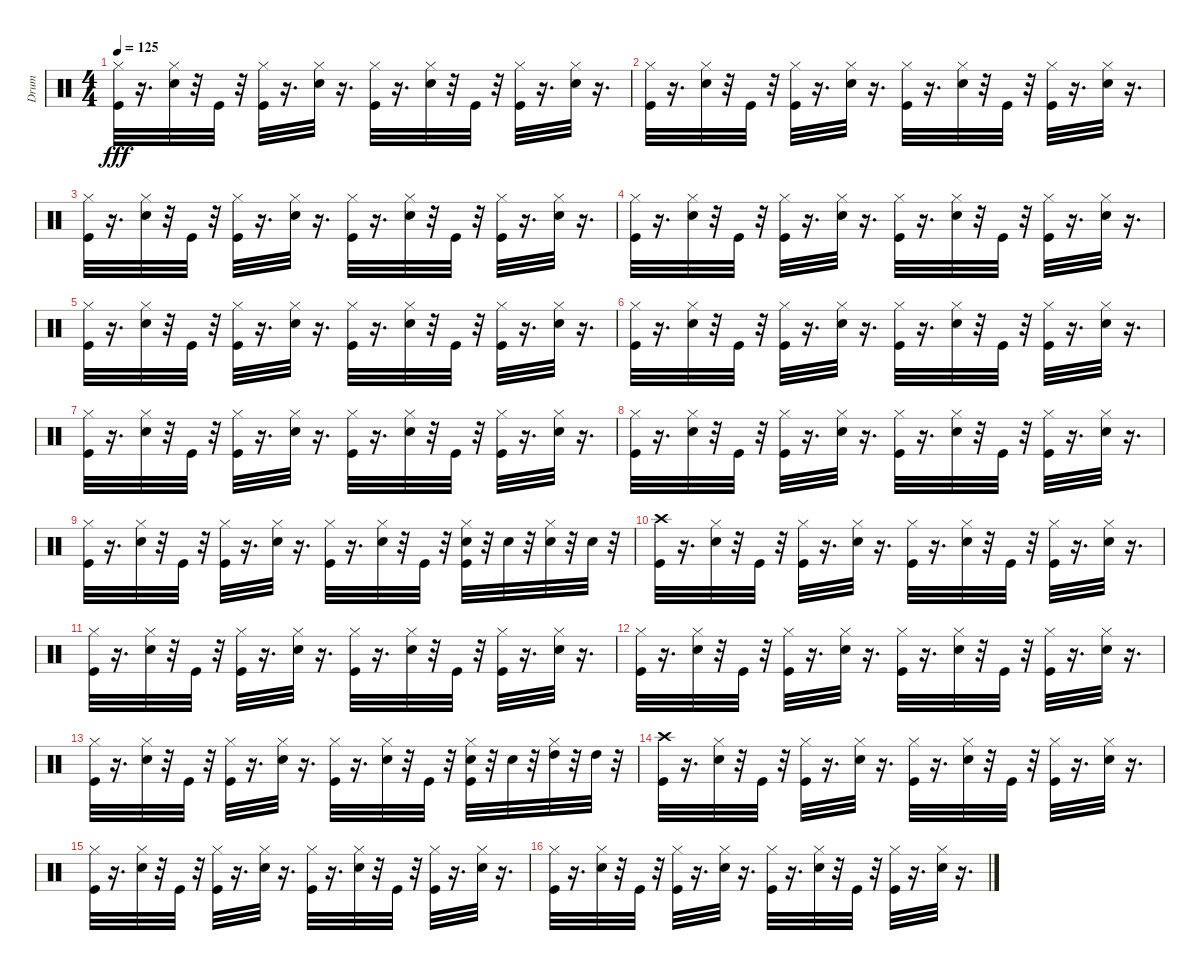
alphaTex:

\track ("Drum" "Drum") {instrument percussion}
\staff {score}
\articulation defaults
\ts (4 4)
\tempo 125
\clef neutral
\ks c
("Hi-Hat (closed)" "Kick (hit)").32{dy fff} r.16{d} ("Hi-Hat (closed)" "Snare (hit) 2").32 r.32 "Kick (hit)".32 r.32 ("Hi-Hat (closed)" "Kick (hit)").32 r.16{d} ("Snare (hit) 2" "Hi-Hat (closed)").32 r.16{d} ("Kick (hit)" "Hi-Hat (closed)").32 r.16{d} ("Snare (hit) 2" "Hi-Hat (closed)").32 r.32 "Kick (hit)".32 r.32 ("Kick (hit)" "Hi-Hat (closed)").32 r.16{d} ("Snare (hit) 2" "Hi-Hat (closed)").32 r.16{d} |
("Hi-Hat (closed)" "Kick (hit)").32 r.16{d} ("Hi-Hat (closed)" "Snare (hit) 2").32 r.32 "Kick (hit)".32 r.32 ("Hi-Hat (closed)" "Kick (hit)").32 r.16{d} ("Snare (hit) 2" "Hi-Hat (closed)").32 r.16{d} ("Kick (hit)" "Hi-Hat (closed)").32 r.16{d} ("Snare (hit) 2" "Hi-Hat (closed)").32 r.32 "Kick (hit)".32 r.32 ("Kick (hit)" "Hi-Hat (closed)").32 r.16{d} ("Snare (hit) 2" "Hi-Hat (closed)").32 r.16{d} |
("Hi-Hat (closed)" "Kick (hit)").32 r.16{d} ("Hi-Hat (closed)" "Snare (hit) 2").32 r.32 "Kick (hit)".32 r.32 ("Hi-Hat (closed)" "Kick (hit)").32 r.16{d} ("Snare (hit) 2" "Hi-Hat (closed)").32 r.16{d} ("Kick (hit)" "Hi-Hat (closed)").32 r.16{d} ("Snare (hit) 2" "Hi-Hat (closed)").32 r.32 "Kick (hit)".32 r.32 ("Kick (hit)" "Hi-Hat (closed)").32 r.16{d} ("Snare (hit) 2" "Hi-Hat (closed)").32 r.16{d} |
("Hi-Hat (closed)" "Kick (hit)").32 r.16{d} ("Hi-Hat (closed)" "Snare (hit) 2").32 r.32 "Kick (hit)".32 r.32 ("Hi-Hat (closed)" "Kick (hit)").32 r.16{d} ("Snare (hit) 2" "Hi-Hat (closed)").32 r.16{d} ("Kick (hit)" "Hi-Hat (closed)").32 r.16{d} ("Snare (hit) 2" "Hi-Hat (closed)").32 r.32 "Kick (hit)".32 r.32 ("Kick (hit)" "Hi-Hat (closed)").32 r.16{d} ("Snare (hit) 2" "Hi-Hat (closed)").32 r.16{d} |
("Hi-Hat (closed)" "Kick (hit)").32 r.16{d} ("Hi-Hat (closed)" "Snare (hit) 2").32 r.32 "Kick (hit)".32 r.32 ("Hi-Hat (closed)" "Kick (hit)").32 r.16{d} ("Snare (hit) 2" "Hi-Hat (closed)").32 r.16{d} ("Kick (hit)" "Hi-Hat (closed)").32 r.16{d} ("Snare (hit) 2" "Hi-Hat (closed)").32 r.32 "Kick (hit)".32 r.32 ("Kick (hit)" "Hi-Hat (closed)").32 r.16{d} ("Snare (hit) 2" "Hi-Hat (closed)").32 r.16{d} |
("Hi-Hat (closed)" "Kick (hit)").32 r.16{d} ("Hi-Hat (closed)" "Snare (hit) 2").32 r.32 "Kick (hit)".32 r.32 ("Hi-Hat (closed)" "Kick (hit)").32 r.16{d} ("Snare (hit) 2" "Hi-Hat (closed)").32 r.16{d} ("Kick (hit)" "Hi-Hat (closed)").32 r.16{d} ("Snare (hit) 2" "Hi-Hat (closed)").32 r.32 "Kick (hit)".32 r.32 ("Kick (hit)" "Hi-Hat (closed)").32 r.16{d} ("Snare (hit) 2" "Hi-Hat (closed)").32 r.16{d} |
("Hi-Hat (closed)" "Kick (hit)").32 r.16{d} ("Hi-Hat (closed)" "Snare (hit) 2").32 r.32 "Kick (hit)".32 r.32 ("Hi-Hat (closed)" "Kick (hit)").32 r.16{d} ("Snare (hit) 2" "Hi-Hat (closed)").32 r.16{d} ("Kick (hit)" "Hi-Hat (closed)").32 r.16{d} ("Snare (hit) 2" "Hi-Hat (closed)").32 r.32 "Kick (hit)".32 r.32 ("Kick (hit)" "Hi-Hat (closed)").32 r.16{d} ("Snare (hit) 2" "Hi-Hat (closed)").32 r.16{d} |
("Hi-Hat (closed)" "Kick (hit)").32 r.16{d} ("Hi-Hat (closed)" "Snare (hit) 2").32 r.32 "Kick (hit)".32 r.32 ("Hi-Hat (closed)" "Kick (hit)").32 r.16{d} ("Snare (hit) 2" "Hi-Hat (closed)").32 r.16{d} ("Kick (hit)" "Hi-Hat (closed)").32 r.16{d} ("Snare (hit) 2" "Hi-Hat (closed)").32 r.32 "Kick (hit)".32 r.32 ("Kick (hit)" "Hi-Hat (closed)").32 r.16{d} ("Snare (hit) 2" "Hi-Hat (closed)").32 r.16{d} |
("Hi-Hat (closed)" "Kick (hit)").32 r.16{d} ("Hi-Hat (closed)" "Snare (hit) 2").32 r.32 "Kick (hit)".32 r.32 ("Hi-Hat (closed)" "Kick (hit)").32 r.16{d} ("Snare (hit) 2" "Hi-Hat (closed)").32 r.16{d} ("Kick (hit)" "Hi-Hat (closed)").32 r.16{d} ("Snare (hit) 2" "Hi-Hat (closed)").32 r.32 "Kick (hit)".32 r.32 ("Snare (hit) 2" "Kick (hit)" "Hi-Hat (closed)").32 r.32 "Snare (hit) 2".32 r.32 ("Snare (hit) 2" "Hi-Hat (closed)").32 r.32 "Snare (hit) 2".32 r.32 |
("Crash high (hit)" "Kick (hit)").32 r.16{d} ("Hi-Hat (closed)" "Snare (hit) 2").32 r.32 "Kick (hit)".32 r.32 ("Hi-Hat (closed)" "Kick (hit)").32 r.16{d} ("Snare (hit) 2" "Hi-Hat (closed)").32 r.16{d} ("Kick (hit)" "Hi-Hat (closed)").32 r.16{d} ("Snare (hit) 2" "Hi-Hat (closed)").32 r.32 "Kick (hit)".32 r.32 ("Kick (hit)" "Hi-Hat (closed)").32 r.16{d} ("Snare (hit) 2" "Hi-Hat (closed)").32 r.16{d} |
("Hi-Hat (closed)" "Kick (hit)").32 r.16{d} ("Hi-Hat (closed)" "Snare (hit) 2").32 r.32 "Kick (hit)".32 r.32 ("Hi-Hat (closed)" "Kick (hit)").32 r.16{d} ("Snare (hit) 2" "Hi-Hat (closed)").32 r.16{d} ("Kick (hit)" "Hi-Hat (closed)").32 r.16{d} ("Snare (hit) 2" "Hi-Hat (closed)").32 r.32 "Kick (hit)".32 r.32 ("Kick (hit)" "Hi-Hat (closed)").32 r.16{d} ("Snare (hit) 2" "Hi-Hat (closed)").32 r.16{d} |
("Hi-Hat (closed)" "Kick (hit)").32 r.16{d} ("Hi-Hat (closed)" "Snare (hit) 2").32 r.32 "Kick (hit)".32 r.32 ("Hi-Hat (closed)" "Kick (hit)").32 r.16{d} ("Snare (hit) 2" "Hi-Hat (closed)").32 r.16{d} ("Kick (hit)" "Hi-Hat (closed)").32 r.16{d} ("Snare (hit) 2" "Hi-Hat (closed)").32 r.32 "Kick (hit)".32 r.32 ("Kick (hit)" "Hi-Hat (closed)").32 r.16{d} ("Snare (hit) 2" "Hi-Hat (closed)").32 r.16{d} |
("Hi-Hat (closed)" "Kick (hit)").32 r.16{d} ("Hi-Hat (closed)" "Snare (hit) 2").32 r.32 "Kick (hit)".32 r.32 ("Hi-Hat (closed)" "Kick (hit)").32 r.16{d} ("Snare (hit) 2" "Hi-Hat (closed)").32 r.16{d} ("Kick (hit)" "Hi-Hat (closed)").32 r.16{d} ("Snare (hit) 2" "Hi-Hat (closed)").32 r.32 "Kick (hit)".32 r.32 ("Snare (hit) 2" "Kick (hit)" "Hi-Hat (closed)").32 r.32 "Snare (hit) 2".32 r.32 ("High Tom (hit)" "Hi-Hat (closed)").32 r.32 "High Tom (hit)".32 r.32 |
("Crash high (hit)" "Kick (hit)").32 r.16{d} ("Hi-Hat (closed)" "Snare (hit) 2").32 r.32 "Kick (hit)".32 r.32 ("Hi-Hat (closed)" "Kick (hit)").32 r.16{d} ("Snare (hit) 2" "Hi-Hat (closed)").32 r.16{d} ("Kick (hit)" "Hi-Hat (closed)").32 r.16{d} ("Snare (hit) 2" "Hi-Hat (closed)").32 r.32 "Kick (hit)".32 r.32 ("Kick (hit)" "Hi-Hat (closed)").32 r.16{d} ("Snare (hit) 2" "Hi-Hat (closed)").32 r.16{d} |
("Hi-Hat (closed)" "Kick (hit)").32 r.16{d} ("Hi-Hat (closed)" "Snare (hit) 2").32 r.32 "Kick (hit)".32 r.32 ("Hi-Hat (closed)" "Kick (hit)").32 r.16{d} ("Snare (hit) 2" "Hi-Hat (closed)").32 r.16{d} ("Kick (hit)" "Hi-Hat (closed)").32 r.16{d} ("Snare (hit) 2" "Hi-Hat (closed)").32 r.32 "Kick (hit)".32 r.32 ("Kick (hit)" "Hi-Hat (closed)").32 r.16{d} ("Snare (hit) 2" "Hi-Hat (closed)").32 r.16{d} |
("Hi-Hat (closed)" "Kick (hit)").32 r.16{d} ("Hi-Hat (closed)" "Snare (hit) 2").32 r.32 "Kick (hit)".32 r.32 ("Hi-Hat (closed)" "Kick (hit)").32 r.16{d} ("Snare (hit) 2" "Hi-Hat (closed)").32 r.16{d} ("Kick (hit)" "Hi-Hat (closed)").32 r.16{d} ("Snare (hit) 2" "Hi-Hat (closed)").32 r.32 "Kick (hit)".32 r.32 ("Kick (hit)" "Hi-Hat (closed)").32 r.16{d} ("Snare (hit) 2" "Hi-Hat (closed)").32 r.16{d}
